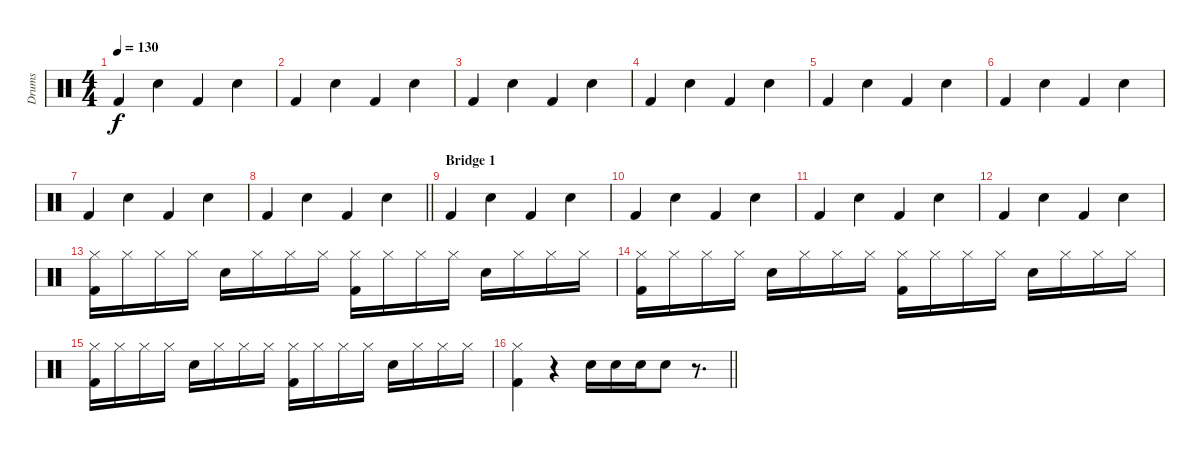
\track ("Drums" "Drums") {instrument percussion}
\staff {score}
\articulation defaults
\ts (4 4)
\tempo 130
\clef neutral
\ks c "Kick (hit) 2".4{dy f} "Snare (hit) 2".4 "Kick (hit) 2".4 "Snare (hit) 2".4
|
"Kick (hit) 2".4 "Snare (hit) 2".4 "Kick (hit) 2".4 "Snare (hit) 2".4 |
"Kick (hit) 2".4 "Snare (hit) 2".4 "Kick (hit) 2".4 "Snare (hit) 2".4 |
"Kick (hit) 2".4 "Snare (hit) 2".4 "Kick (hit) 2".4 "Snare (hit) 2".4 |
"Kick (hit) 2".4 "Snare (hit) 2".4 "Kick (hit) 2".4 "Snare (hit) 2".4 |
"Kick (hit) 2".4 "Snare (hit) 2".4 "Kick (hit) 2".4 "Snare (hit) 2".4 |
"Kick (hit) 2".4 "Snare (hit) 2".4 "Kick (hit) 2".4 "Snare (hit) 2".4 |
\barLineRight lightlight "Kick (hit) 2".4 "Snare (hit) 2".4 "Kick (hit) 2".4 "Snare (hit) 2".4
|
\section ("" "Bridge 1")
"Kick (hit) 2".4 "Snare (hit) 2".4 "Kick (hit) 2".4 "Snare (hit) 2".4 |
"Kick (hit) 2".4 "Snare (hit) 2".4 "Kick (hit) 2".4 "Snare (hit) 2".4 |
"Kick (hit) 2".4 "Snare (hit) 2".4 "Kick (hit) 2".4 "Snare (hit) 2".4 |
"Kick (hit) 2".4 "Snare (hit) 2".4 "Kick (hit) 2".4 "Snare (hit) 2".4 |
("Hi-Hat (closed)" "Kick (hit) 2").16 "Hi-Hat (closed)".16 "Hi-Hat (closed)".16 "Hi-Hat (closed)".16 "Snare (hit) 2".16 "Hi-Hat (closed)".16 "Hi-Hat (closed)".16 "Hi-Hat (closed)".16 ("Hi-Hat (closed)" "Kick (hit) 2").16 "Hi-Hat (closed)".16 "Hi-Hat (closed)".16 "Hi-Hat (closed)".16 "Snare (hit) 2".16 "Hi-Hat (closed)".16 "Hi-Hat (closed)".16 "Hi-Hat (closed)".16 |
("Hi-Hat (closed)" "Kick (hit) 2").16 "Hi-Hat (closed)".16 "Hi-Hat (closed)".16 "Hi-Hat (closed)".16 "Snare (hit) 2".16 "Hi-Hat (closed)".16 "Hi-Hat (closed)".16 "Hi-Hat (closed)".16 ("Hi-Hat (closed)" "Kick (hit) 2").16 "Hi-Hat (closed)".16 "Hi-Hat (closed)".16 "Hi-Hat (closed)".16 "Snare (hit) 2".16 "Hi-Hat (closed)".16 "Hi-Hat (closed)".16 "Hi-Hat (closed)".16 |
("Hi-Hat (closed)" "Kick (hit) 2").16 "Hi-Hat (closed)".16 "Hi-Hat (closed)".16 "Hi-Hat (closed)".16 "Snare (hit) 2".16 "Hi-Hat (closed)".16 "Hi-Hat (closed)".16 "Hi-Hat (closed)".16 ("Hi-Hat (closed)" "Kick (hit) 2").16 "Hi-Hat (closed)".16 "Hi-Hat (closed)".16 "Hi-Hat (closed)".16 "Snare (hit) 2".16 "Hi-Hat (closed)".16 "Hi-Hat (closed)".16 "Hi-Hat (closed)".16 |
\barLineRight lightlight
("Hi-Hat (closed)" "Kick (hit) 2").4 r.4 "Snare (hit) 2".16 "Snare (hit) 2".16 "Snare (hit) 2".16 "Snare (hit) 2".8 r.8{d}
